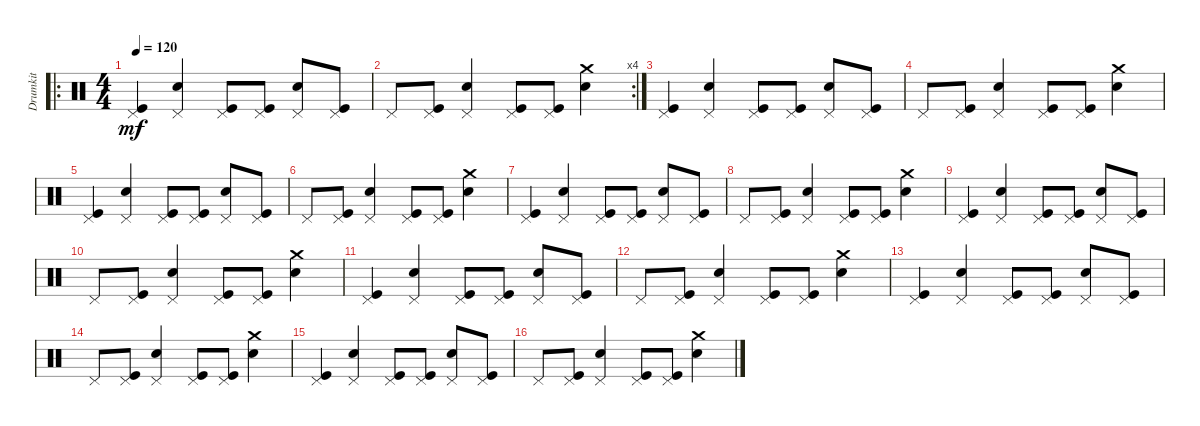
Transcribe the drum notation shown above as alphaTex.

\track ("Drumkit" "Drumkit") {instrument percussion}
\staff {score}
\articulation defaults
\ro
\ts (4 4)
\tempo 120
\clef neutral
\ks c
("Kick (hit)" "Pedal Hi-Hat (hit)").4{dy mf} ("Snare (hit) 2" "Pedal Hi-Hat (hit)").4 ("Kick (hit)" "Pedal Hi-Hat (hit)").8 ("Kick (hit)" "Pedal Hi-Hat (hit)").8 ("Snare (hit) 2" "Pedal Hi-Hat (hit)").8 ("Kick (hit)" "Pedal Hi-Hat (hit)").8 |
\rc 4 "Pedal Hi-Hat (hit)".8
("Kick (hit)" "Pedal Hi-Hat (hit)").8 ("Snare (hit) 2" "Pedal Hi-Hat (hit)").4 ("Kick (hit)" "Pedal Hi-Hat (hit)").8 ("Kick (hit)" "Pedal Hi-Hat (hit)").8 ("Snare (hit) 2" "Crash medium (hit)").4 |
("Kick (hit)" "Pedal Hi-Hat (hit)").4 ("Snare (hit) 2" "Pedal Hi-Hat (hit)").4 ("Kick (hit)" "Pedal Hi-Hat (hit)").8 ("Kick (hit)" "Pedal Hi-Hat (hit)").8 ("Snare (hit) 2" "Pedal Hi-Hat (hit)").8 ("Kick (hit)" "Pedal Hi-Hat (hit)").8 |
"Pedal Hi-Hat (hit)".8 ("Kick (hit)" "Pedal Hi-Hat (hit)").8 ("Snare (hit) 2" "Pedal Hi-Hat (hit)").4 ("Kick (hit)" "Pedal Hi-Hat (hit)").8 ("Kick (hit)" "Pedal Hi-Hat (hit)").8 ("Snare (hit) 2" "Crash medium (hit)").4 |
("Kick (hit)" "Pedal Hi-Hat (hit)").4 ("Snare (hit) 2" "Pedal Hi-Hat (hit)").4 ("Kick (hit)" "Pedal Hi-Hat (hit)").8 ("Kick (hit)" "Pedal Hi-Hat (hit)").8 ("Snare (hit) 2" "Pedal Hi-Hat (hit)").8 ("Kick (hit)" "Pedal Hi-Hat (hit)").8 |
"Pedal Hi-Hat (hit)".8 ("Kick (hit)" "Pedal Hi-Hat (hit)").8 ("Snare (hit) 2" "Pedal Hi-Hat (hit)").4 ("Kick (hit)" "Pedal Hi-Hat (hit)").8 ("Kick (hit)" "Pedal Hi-Hat (hit)").8 ("Snare (hit) 2" "Crash medium (hit)").4 |
("Kick (hit)" "Pedal Hi-Hat (hit)").4 ("Snare (hit) 2" "Pedal Hi-Hat (hit)").4 ("Kick (hit)" "Pedal Hi-Hat (hit)").8 ("Kick (hit)" "Pedal Hi-Hat (hit)").8 ("Snare (hit) 2" "Pedal Hi-Hat (hit)").8 ("Kick (hit)" "Pedal Hi-Hat (hit)").8 |
"Pedal Hi-Hat (hit)".8 ("Kick (hit)" "Pedal Hi-Hat (hit)").8 ("Snare (hit) 2" "Pedal Hi-Hat (hit)").4 ("Kick (hit)" "Pedal Hi-Hat (hit)").8 ("Kick (hit)" "Pedal Hi-Hat (hit)").8 ("Snare (hit) 2" "Crash medium (hit)").4 |
("Kick (hit)" "Pedal Hi-Hat (hit)").4 ("Snare (hit) 2" "Pedal Hi-Hat (hit)").4 ("Kick (hit)" "Pedal Hi-Hat (hit)").8 ("Kick (hit)" "Pedal Hi-Hat (hit)").8 ("Snare (hit) 2" "Pedal Hi-Hat (hit)").8 ("Kick (hit)" "Pedal Hi-Hat (hit)").8 |
"Pedal Hi-Hat (hit)".8 ("Kick (hit)" "Pedal Hi-Hat (hit)").8 ("Snare (hit) 2" "Pedal Hi-Hat (hit)").4 ("Kick (hit)" "Pedal Hi-Hat (hit)").8 ("Kick (hit)" "Pedal Hi-Hat (hit)").8 ("Snare (hit) 2" "Crash medium (hit)").4 |
("Kick (hit)" "Pedal Hi-Hat (hit)").4 ("Snare (hit) 2" "Pedal Hi-Hat (hit)").4 ("Kick (hit)" "Pedal Hi-Hat (hit)").8 ("Kick (hit)" "Pedal Hi-Hat (hit)").8 ("Snare (hit) 2" "Pedal Hi-Hat (hit)").8 ("Kick (hit)" "Pedal Hi-Hat (hit)").8 |
"Pedal Hi-Hat (hit)".8 ("Kick (hit)" "Pedal Hi-Hat (hit)").8 ("Snare (hit) 2" "Pedal Hi-Hat (hit)").4 ("Kick (hit)" "Pedal Hi-Hat (hit)").8 ("Kick (hit)" "Pedal Hi-Hat (hit)").8 ("Snare (hit) 2" "Crash medium (hit)").4 |
("Kick (hit)" "Pedal Hi-Hat (hit)").4 ("Snare (hit) 2" "Pedal Hi-Hat (hit)").4 ("Kick (hit)" "Pedal Hi-Hat (hit)").8 ("Kick (hit)" "Pedal Hi-Hat (hit)").8 ("Snare (hit) 2" "Pedal Hi-Hat (hit)").8 ("Kick (hit)" "Pedal Hi-Hat (hit)").8 |
"Pedal Hi-Hat (hit)".8 ("Kick (hit)" "Pedal Hi-Hat (hit)").8 ("Snare (hit) 2" "Pedal Hi-Hat (hit)").4 ("Kick (hit)" "Pedal Hi-Hat (hit)").8 ("Kick (hit)" "Pedal Hi-Hat (hit)").8 ("Snare (hit) 2" "Crash medium (hit)").4 |
("Kick (hit)" "Pedal Hi-Hat (hit)").4 ("Snare (hit) 2" "Pedal Hi-Hat (hit)").4 ("Kick (hit)" "Pedal Hi-Hat (hit)").8 ("Kick (hit)" "Pedal Hi-Hat (hit)").8 ("Snare (hit) 2" "Pedal Hi-Hat (hit)").8 ("Kick (hit)" "Pedal Hi-Hat (hit)").8 |
"Pedal Hi-Hat (hit)".8 ("Kick (hit)" "Pedal Hi-Hat (hit)").8 ("Snare (hit) 2" "Pedal Hi-Hat (hit)").4 ("Kick (hit)" "Pedal Hi-Hat (hit)").8 ("Kick (hit)" "Pedal Hi-Hat (hit)").8 ("Snare (hit) 2" "Crash medium (hit)").4
